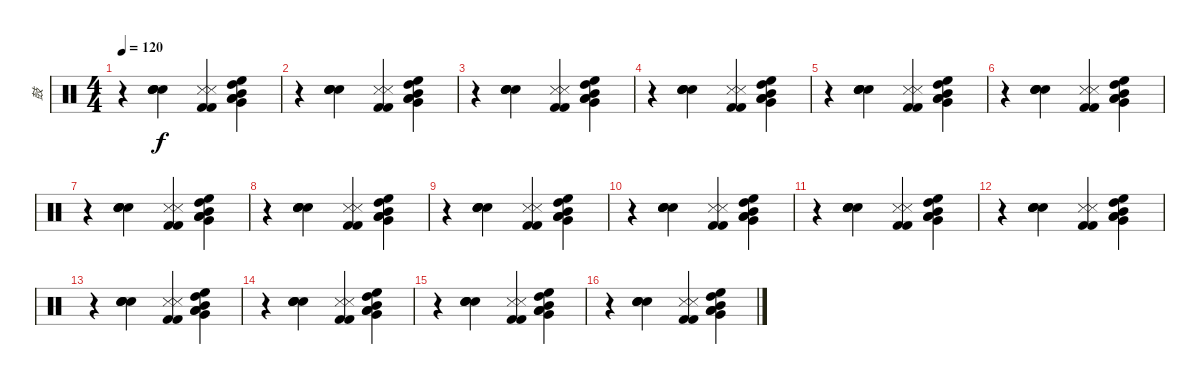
\track ("鼓" "鼓") {instrument percussion}
\staff {score}
\articulation defaults
\ts (4 4)
\tempo 120
\clef neutral
\ks c
r.4{dy f} ("Hand Clap (hit)" "Hand Clap (hit)" "Hand Clap (hit)" "Hand Clap (hit)").4 ("Snare (side stick) 3" "Kick (hit) 2" "Kick (hit) 2" "Snare (side stick) 3").4 ("High Floor Tom (hit)" "High Tom (hit)" "Mid Tom (hit)" "Low Tom (hit)" "Very Low Tom (hit)" "Low Floor Tom (hit)").4 |
r.4 ("Hand Clap (hit)" "Hand Clap (hit)" "Hand Clap (hit)" "Hand Clap (hit)").4 ("Snare (side stick) 3" "Kick (hit) 2" "Kick (hit) 2" "Snare (side stick) 3").4 ("High Floor Tom (hit)" "High Tom (hit)" "Mid Tom (hit)" "Low Tom (hit)" "Very Low Tom (hit)" "Low Floor Tom (hit)").4 |
r.4 ("Hand Clap (hit)" "Hand Clap (hit)" "Hand Clap (hit)" "Hand Clap (hit)").4 ("Snare (side stick) 3" "Kick (hit) 2" "Kick (hit) 2" "Snare (side stick) 3").4 ("High Floor Tom (hit)" "High Tom (hit)" "Mid Tom (hit)" "Low Tom (hit)" "Very Low Tom (hit)" "Low Floor Tom (hit)").4 |
r.4 ("Hand Clap (hit)" "Hand Clap (hit)" "Hand Clap (hit)" "Hand Clap (hit)").4 ("Snare (side stick) 3" "Kick (hit) 2" "Kick (hit) 2" "Snare (side stick) 3").4 ("High Floor Tom (hit)" "High Tom (hit)" "Mid Tom (hit)" "Low Tom (hit)" "Very Low Tom (hit)" "Low Floor Tom (hit)").4 |
r.4 ("Hand Clap (hit)" "Hand Clap (hit)" "Hand Clap (hit)" "Hand Clap (hit)").4 ("Snare (side stick) 3" "Kick (hit) 2" "Kick (hit) 2" "Snare (side stick) 3").4 ("High Floor Tom (hit)" "High Tom (hit)" "Mid Tom (hit)" "Low Tom (hit)" "Very Low Tom (hit)" "Low Floor Tom (hit)").4 |
r.4 ("Hand Clap (hit)" "Hand Clap (hit)" "Hand Clap (hit)" "Hand Clap (hit)").4 ("Snare (side stick) 3" "Kick (hit) 2" "Kick (hit) 2" "Snare (side stick) 3").4 ("High Floor Tom (hit)" "High Tom (hit)" "Mid Tom (hit)" "Low Tom (hit)" "Very Low Tom (hit)" "Low Floor Tom (hit)").4 |
r.4 ("Hand Clap (hit)" "Hand Clap (hit)" "Hand Clap (hit)" "Hand Clap (hit)").4 ("Snare (side stick) 3" "Kick (hit) 2" "Kick (hit) 2" "Snare (side stick) 3").4 ("High Floor Tom (hit)" "High Tom (hit)" "Mid Tom (hit)" "Low Tom (hit)" "Very Low Tom (hit)" "Low Floor Tom (hit)").4 |
r.4 ("Hand Clap (hit)" "Hand Clap (hit)" "Hand Clap (hit)" "Hand Clap (hit)").4 ("Snare (side stick) 3" "Kick (hit) 2" "Kick (hit) 2" "Snare (side stick) 3").4 ("High Floor Tom (hit)" "High Tom (hit)" "Mid Tom (hit)" "Low Tom (hit)" "Very Low Tom (hit)" "Low Floor Tom (hit)").4 |
r.4 ("Hand Clap (hit)" "Hand Clap (hit)" "Hand Clap (hit)" "Hand Clap (hit)").4 ("Snare (side stick) 3" "Kick (hit) 2" "Kick (hit) 2" "Snare (side stick) 3").4 ("High Floor Tom (hit)" "High Tom (hit)" "Mid Tom (hit)" "Low Tom (hit)" "Very Low Tom (hit)" "Low Floor Tom (hit)").4 |
r.4 ("Hand Clap (hit)" "Hand Clap (hit)" "Hand Clap (hit)" "Hand Clap (hit)").4 ("Snare (side stick) 3" "Kick (hit) 2" "Kick (hit) 2" "Snare (side stick) 3").4 ("High Floor Tom (hit)" "High Tom (hit)" "Mid Tom (hit)" "Low Tom (hit)" "Very Low Tom (hit)" "Low Floor Tom (hit)").4 |
r.4 ("Hand Clap (hit)" "Hand Clap (hit)" "Hand Clap (hit)" "Hand Clap (hit)").4 ("Snare (side stick) 3" "Kick (hit) 2" "Kick (hit) 2" "Snare (side stick) 3").4 ("High Floor Tom (hit)" "High Tom (hit)" "Mid Tom (hit)" "Low Tom (hit)" "Very Low Tom (hit)" "Low Floor Tom (hit)").4 |
r.4 ("Hand Clap (hit)" "Hand Clap (hit)" "Hand Clap (hit)" "Hand Clap (hit)").4 ("Snare (side stick) 3" "Kick (hit) 2" "Kick (hit) 2" "Snare (side stick) 3").4 ("High Floor Tom (hit)" "High Tom (hit)" "Mid Tom (hit)" "Low Tom (hit)" "Very Low Tom (hit)" "Low Floor Tom (hit)").4 |
r.4 ("Hand Clap (hit)" "Hand Clap (hit)" "Hand Clap (hit)" "Hand Clap (hit)").4 ("Snare (side stick) 3" "Kick (hit) 2" "Kick (hit) 2" "Snare (side stick) 3").4 ("High Floor Tom (hit)" "High Tom (hit)" "Mid Tom (hit)" "Low Tom (hit)" "Very Low Tom (hit)" "Low Floor Tom (hit)").4 |
r.4 ("Hand Clap (hit)" "Hand Clap (hit)" "Hand Clap (hit)" "Hand Clap (hit)").4 ("Snare (side stick) 3" "Kick (hit) 2" "Kick (hit) 2" "Snare (side stick) 3").4 ("High Floor Tom (hit)" "High Tom (hit)" "Mid Tom (hit)" "Low Tom (hit)" "Very Low Tom (hit)" "Low Floor Tom (hit)").4 |
r.4 ("Hand Clap (hit)" "Hand Clap (hit)" "Hand Clap (hit)" "Hand Clap (hit)").4 ("Snare (side stick) 3" "Kick (hit) 2" "Kick (hit) 2" "Snare (side stick) 3").4 ("High Floor Tom (hit)" "High Tom (hit)" "Mid Tom (hit)" "Low Tom (hit)" "Very Low Tom (hit)" "Low Floor Tom (hit)").4 |
r.4 ("Hand Clap (hit)" "Hand Clap (hit)" "Hand Clap (hit)" "Hand Clap (hit)").4 ("Snare (side stick) 3" "Kick (hit) 2" "Kick (hit) 2" "Snare (side stick) 3").4 ("High Floor Tom (hit)" "High Tom (hit)" "Mid Tom (hit)" "Low Tom (hit)" "Very Low Tom (hit)" "Low Floor Tom (hit)").4
